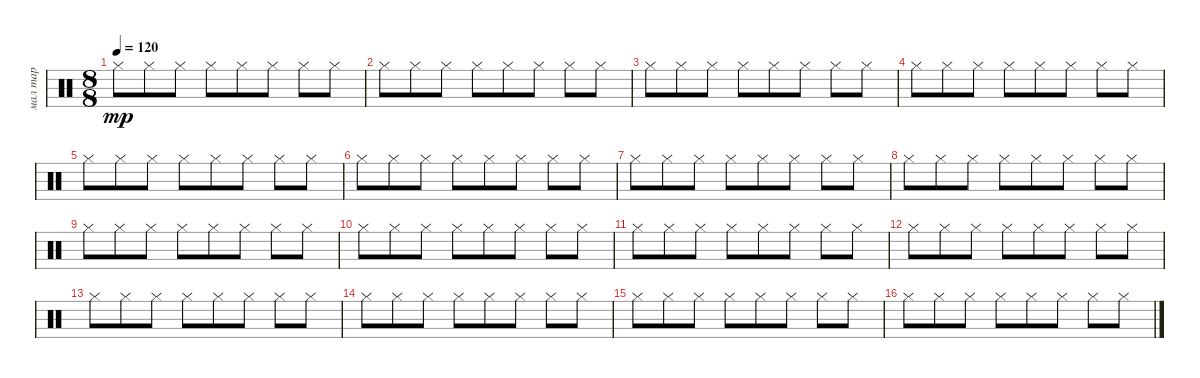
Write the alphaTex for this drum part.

\track ("мал тар" "мал тар") {instrument percussion}
\staff {score}
\articulation defaults
\ts (8 8)
\tempo 120
\clef neutral
\ks c "Hi-Hat (closed)".8{dy mp} "Hi-Hat (closed)".8 "Hi-Hat (closed)".8 "Hi-Hat (closed)".8 "Hi-Hat (closed)".8 "Hi-Hat (closed)".8 "Hi-Hat (closed)".8 "Hi-Hat (closed)".8
|
"Hi-Hat (closed)".8 "Hi-Hat (closed)".8 "Hi-Hat (closed)".8 "Hi-Hat (closed)".8 "Hi-Hat (closed)".8 "Hi-Hat (closed)".8 "Hi-Hat (closed)".8 "Hi-Hat (closed)".8 |
"Hi-Hat (closed)".8 "Hi-Hat (closed)".8 "Hi-Hat (closed)".8 "Hi-Hat (closed)".8 "Hi-Hat (closed)".8 "Hi-Hat (closed)".8 "Hi-Hat (closed)".8 "Hi-Hat (closed)".8 |
"Hi-Hat (closed)".8 "Hi-Hat (closed)".8 "Hi-Hat (closed)".8 "Hi-Hat (closed)".8 "Hi-Hat (closed)".8 "Hi-Hat (closed)".8 "Hi-Hat (closed)".8 "Hi-Hat (closed)".8 |
"Hi-Hat (closed)".8 "Hi-Hat (closed)".8 "Hi-Hat (closed)".8 "Hi-Hat (closed)".8 "Hi-Hat (closed)".8 "Hi-Hat (closed)".8 "Hi-Hat (closed)".8 "Hi-Hat (closed)".8 |
"Hi-Hat (closed)".8 "Hi-Hat (closed)".8 "Hi-Hat (closed)".8 "Hi-Hat (closed)".8 "Hi-Hat (closed)".8 "Hi-Hat (closed)".8 "Hi-Hat (closed)".8 "Hi-Hat (closed)".8 |
"Hi-Hat (closed)".8 "Hi-Hat (closed)".8 "Hi-Hat (closed)".8 "Hi-Hat (closed)".8 "Hi-Hat (closed)".8 "Hi-Hat (closed)".8 "Hi-Hat (closed)".8 "Hi-Hat (closed)".8 |
"Hi-Hat (closed)".8 "Hi-Hat (closed)".8 "Hi-Hat (closed)".8 "Hi-Hat (closed)".8 "Hi-Hat (closed)".8 "Hi-Hat (closed)".8 "Hi-Hat (closed)".8 "Hi-Hat (closed)".8 |
"Hi-Hat (closed)".8 "Hi-Hat (closed)".8 "Hi-Hat (closed)".8 "Hi-Hat (closed)".8 "Hi-Hat (closed)".8 "Hi-Hat (closed)".8 "Hi-Hat (closed)".8 "Hi-Hat (closed)".8 |
"Hi-Hat (closed)".8 "Hi-Hat (closed)".8 "Hi-Hat (closed)".8 "Hi-Hat (closed)".8 "Hi-Hat (closed)".8 "Hi-Hat (closed)".8 "Hi-Hat (closed)".8 "Hi-Hat (closed)".8 |
"Hi-Hat (closed)".8 "Hi-Hat (closed)".8 "Hi-Hat (closed)".8 "Hi-Hat (closed)".8 "Hi-Hat (closed)".8 "Hi-Hat (closed)".8 "Hi-Hat (closed)".8 "Hi-Hat (closed)".8 |
"Hi-Hat (closed)".8 "Hi-Hat (closed)".8 "Hi-Hat (closed)".8 "Hi-Hat (closed)".8 "Hi-Hat (closed)".8 "Hi-Hat (closed)".8 "Hi-Hat (closed)".8 "Hi-Hat (closed)".8 |
"Hi-Hat (closed)".8 "Hi-Hat (closed)".8 "Hi-Hat (closed)".8 "Hi-Hat (closed)".8 "Hi-Hat (closed)".8 "Hi-Hat (closed)".8 "Hi-Hat (closed)".8 "Hi-Hat (closed)".8 |
"Hi-Hat (closed)".8 "Hi-Hat (closed)".8 "Hi-Hat (closed)".8 "Hi-Hat (closed)".8 "Hi-Hat (closed)".8 "Hi-Hat (closed)".8 "Hi-Hat (closed)".8 "Hi-Hat (closed)".8 |
"Hi-Hat (closed)".8 "Hi-Hat (closed)".8 "Hi-Hat (closed)".8 "Hi-Hat (closed)".8 "Hi-Hat (closed)".8 "Hi-Hat (closed)".8 "Hi-Hat (closed)".8 "Hi-Hat (closed)".8 |
"Hi-Hat (closed)".8 "Hi-Hat (closed)".8 "Hi-Hat (closed)".8 "Hi-Hat (closed)".8 "Hi-Hat (closed)".8 "Hi-Hat (closed)".8 "Hi-Hat (closed)".8 "Hi-Hat (closed)".8
